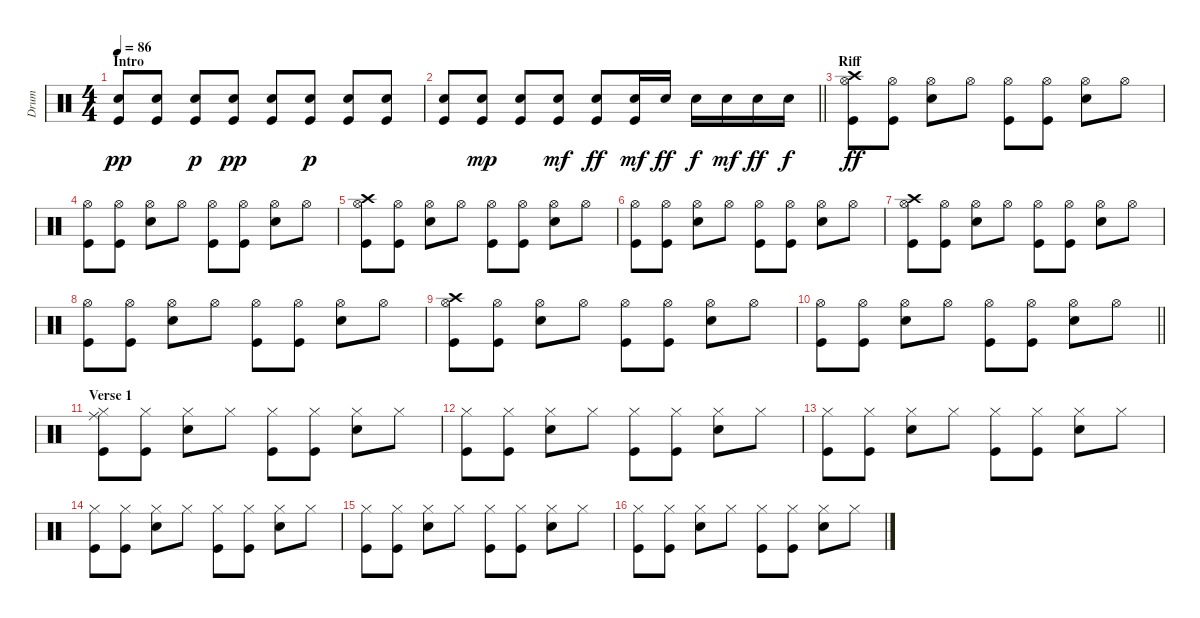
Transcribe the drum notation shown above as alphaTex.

\track ("Drum" "Drum") {instrument percussion}
\staff {score}
\articulation defaults
\ts (4 4)
\section ("" "Intro")
\tempo 86
\clef neutral
\ks c
("Electric Snare (hit)" "Kick (hit)").8{dy pp} ("Electric Snare (hit)" "Kick (hit)").8 ("Electric Snare (hit)" "Kick (hit)").8{dy p} ("Electric Snare (hit)" "Kick (hit)").8{dy pp} ("Electric Snare (hit)" "Kick (hit)").8 ("Electric Snare (hit)" "Kick (hit)").8{dy p} ("Kick (hit)" "Electric Snare (hit)").8 ("Electric Snare (hit)" "Kick (hit)").8 |
\barLineRight lightlight
("Electric Snare (hit)" "Kick (hit)").8 ("Electric Snare (hit)" "Kick (hit)").8{dy mp} ("Electric Snare (hit)" "Kick (hit)").8 ("Electric Snare (hit)" "Kick (hit)").8{dy mf} ("Electric Snare (hit)" "Kick (hit)").8{dy ff} ("Electric Snare (hit)" "Kick (hit)").16{dy mf} "Electric Snare (hit)".16{dy ff} "Electric Snare (hit)".16{dy f} "Electric Snare (hit)".16{dy mf} "Electric Snare (hit)".16{dy ff} "Electric Snare (hit)".16{dy f} |
\section ("" "Riff")
("Crash high (hit)" "Kick (hit)" "Hi-Hat (open)").8{dy ff} ("Hi-Hat (open)" "Kick (hit)").8 ("Electric Snare (hit)" "Hi-Hat (open)").8 "Hi-Hat (open)".8 ("Hi-Hat (open)" "Kick (hit)").8 ("Hi-Hat (open)" "Kick (hit)").8 ("Hi-Hat (open)" "Electric Snare (hit)").8 "Hi-Hat (open)".8 |
("Kick (hit)" "Hi-Hat (open)").8 ("Kick (hit)" "Hi-Hat (open)").8 ("Hi-Hat (open)" "Electric Snare (hit)").8 "Hi-Hat (open)".8 ("Hi-Hat (open)" "Kick (hit)").8 ("Hi-Hat (open)" "Kick (hit)").8 ("Electric Snare (hit)" "Hi-Hat (open)").8 "Hi-Hat (open)".8 |
("Kick (hit)" "Hi-Hat (open)" "Crash high (hit)").8 ("Kick (hit)" "Hi-Hat (open)").8 ("Hi-Hat (open)" "Electric Snare (hit)").8 "Hi-Hat (open)".8 ("Hi-Hat (open)" "Kick (hit)").8 ("Hi-Hat (open)" "Kick (hit)").8 ("Hi-Hat (open)" "Electric Snare (hit)").8 "Hi-Hat (open)".8 |
("Hi-Hat (open)" "Kick (hit)").8 ("Hi-Hat (open)" "Kick (hit)").8 ("Hi-Hat (open)" "Electric Snare (hit)").8 "Hi-Hat (open)".8 ("Hi-Hat (open)" "Kick (hit)").8 ("Hi-Hat (open)" "Kick (hit)").8 ("Hi-Hat (open)" "Electric Snare (hit)").8 "Hi-Hat (open)".8 |
("Crash high (hit)" "Kick (hit)" "Hi-Hat (open)").8 ("Hi-Hat (open)" "Kick (hit)").8 ("Electric Snare (hit)" "Hi-Hat (open)").8 "Hi-Hat (open)".8 ("Hi-Hat (open)" "Kick (hit)").8 ("Hi-Hat (open)" "Kick (hit)").8 ("Hi-Hat (open)" "Electric Snare (hit)").8 "Hi-Hat (open)".8 |
("Kick (hit)" "Hi-Hat (open)").8 ("Kick (hit)" "Hi-Hat (open)").8 ("Hi-Hat (open)" "Electric Snare (hit)").8 "Hi-Hat (open)".8 ("Hi-Hat (open)" "Kick (hit)").8 ("Hi-Hat (open)" "Kick (hit)").8 ("Electric Snare (hit)" "Hi-Hat (open)").8 "Hi-Hat (open)".8 |
("Kick (hit)" "Hi-Hat (open)" "Crash high (hit)").8 ("Kick (hit)" "Hi-Hat (open)").8 ("Hi-Hat (open)" "Electric Snare (hit)").8 "Hi-Hat (open)".8 ("Hi-Hat (open)" "Kick (hit)").8 ("Hi-Hat (open)" "Kick (hit)").8 ("Hi-Hat (open)" "Electric Snare (hit)").8 "Hi-Hat (open)".8 |
\barLineRight lightlight
("Hi-Hat (open)" "Kick (hit)").8 ("Hi-Hat (open)" "Kick (hit)").8 ("Hi-Hat (open)" "Electric Snare (hit)").8 "Hi-Hat (open)".8 ("Hi-Hat (open)" "Kick (hit)").8 ("Hi-Hat (open)" "Kick (hit)").8 ("Hi-Hat (open)" "Electric Snare (hit)").8 "Hi-Hat (open)".8 |
\section ("" "Verse 1")
("Hi-Hat (closed)" "Ride (middle)" "Kick (hit)").8 ("Hi-Hat (closed)" "Kick (hit)").8 ("Hi-Hat (closed)" "Electric Snare (hit)").8 "Hi-Hat (closed)".8 ("Hi-Hat (closed)" "Kick (hit)").8 ("Hi-Hat (closed)" "Kick (hit)").8 ("Hi-Hat (closed)" "Electric Snare (hit)").8 "Hi-Hat (closed)".8 |
("Hi-Hat (closed)" "Kick (hit)").8 ("Hi-Hat (closed)" "Kick (hit)").8 ("Hi-Hat (closed)" "Electric Snare (hit)").8 "Hi-Hat (closed)".8 ("Hi-Hat (closed)" "Kick (hit)").8 ("Hi-Hat (closed)" "Kick (hit)").8 ("Hi-Hat (closed)" "Electric Snare (hit)").8 "Hi-Hat (closed)".8 |
("Hi-Hat (closed)" "Kick (hit)").8 ("Hi-Hat (closed)" "Kick (hit)").8 ("Hi-Hat (closed)" "Electric Snare (hit)").8 "Hi-Hat (closed)".8 ("Hi-Hat (closed)" "Kick (hit)").8 ("Hi-Hat (closed)" "Kick (hit)").8 ("Hi-Hat (closed)" "Electric Snare (hit)").8 "Hi-Hat (closed)".8 |
("Hi-Hat (closed)" "Kick (hit)").8 ("Hi-Hat (closed)" "Kick (hit)").8 ("Hi-Hat (closed)" "Electric Snare (hit)").8 "Hi-Hat (closed)".8 ("Hi-Hat (closed)" "Kick (hit)").8 ("Hi-Hat (closed)" "Kick (hit)").8 ("Hi-Hat (closed)" "Electric Snare (hit)").8 "Hi-Hat (closed)".8 |
("Hi-Hat (closed)" "Kick (hit)").8 ("Hi-Hat (closed)" "Kick (hit)").8 ("Hi-Hat (closed)" "Electric Snare (hit)").8 "Hi-Hat (closed)".8 ("Hi-Hat (closed)" "Kick (hit)").8 ("Hi-Hat (closed)" "Kick (hit)").8 ("Hi-Hat (closed)" "Electric Snare (hit)").8 "Hi-Hat (closed)".8 |
("Hi-Hat (closed)" "Kick (hit)").8 ("Hi-Hat (closed)" "Kick (hit)").8 ("Hi-Hat (closed)" "Electric Snare (hit)").8 "Hi-Hat (closed)".8 ("Hi-Hat (closed)" "Kick (hit)").8 ("Hi-Hat (closed)" "Kick (hit)").8 ("Hi-Hat (closed)" "Electric Snare (hit)").8 "Hi-Hat (closed)".8
